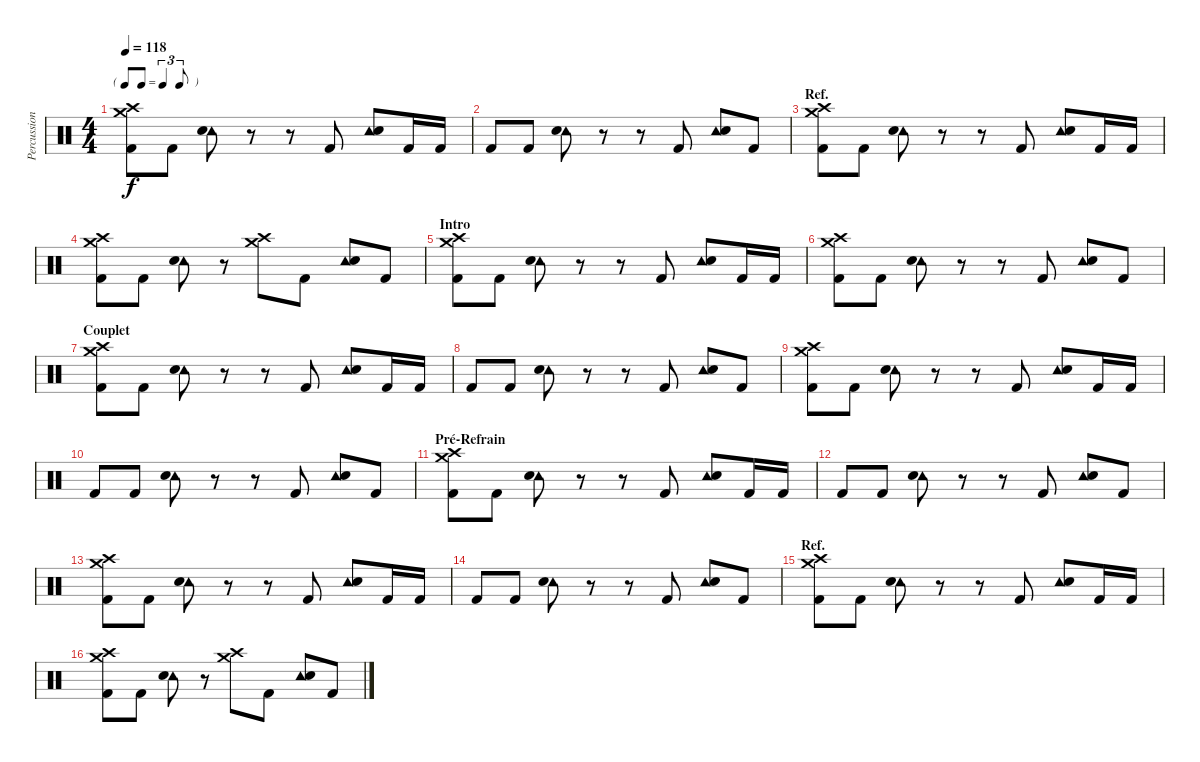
\track ("Percussions" "Percussion") {instrument percussion}
\staff {score}
\articulation defaults
\ts (4 4)
\tf triplet8th
\tempo 118
\clef neutral
\ks c
("Crash medium (hit)" "Crash high (hit)" "Kick (hit) 2").8{dy f} "Kick (hit) 2".8 ("Tambourine (hit)" "Snare (hit) 2").8 r.8 r.8 "Kick (hit) 2".8 ("Tambourine (hit)" "Snare (hit) 2").8 "Kick (hit) 2".16 "Kick (hit) 2".16 |
"Kick (hit) 2".8 "Kick (hit) 2".8 ("Tambourine (hit)" "Snare (hit) 2").8 r.8 r.8 "Kick (hit) 2".8 ("Tambourine (hit)" "Snare (hit) 2").8 "Kick (hit) 2".8 |
\section ("" "Ref.")
("Crash medium (hit)" "Crash high (hit)" "Kick (hit) 2").8 "Kick (hit) 2".8 ("Tambourine (hit)" "Snare (hit) 2").8 r.8 r.8 "Kick (hit) 2".8 ("Tambourine (hit)" "Snare (hit) 2").8 "Kick (hit) 2".16 "Kick (hit) 2".16 |
("Crash medium (hit)" "Crash high (hit)" "Kick (hit) 2").8 "Kick (hit) 2".8 ("Tambourine (hit)" "Snare (hit) 2").8 r.8 ("Crash medium (hit)" "Crash high (hit)").8 "Kick (hit) 2".8 ("Tambourine (hit)" "Snare (hit) 2").8 "Kick (hit) 2".8 |
\section ("" "Intro")
("Crash medium (hit)" "Crash high (hit)" "Kick (hit) 2").8 "Kick (hit) 2".8 ("Tambourine (hit)" "Snare (hit) 2").8 r.8 r.8 "Kick (hit) 2".8 ("Tambourine (hit)" "Snare (hit) 2").8 "Kick (hit) 2".16 "Kick (hit) 2".16 |
("Crash medium (hit)" "Crash high (hit)" "Kick (hit) 2").8 "Kick (hit) 2".8 ("Tambourine (hit)" "Snare (hit) 2").8 r.8 r.8 "Kick (hit) 2".8 ("Tambourine (hit)" "Snare (hit) 2").8 "Kick (hit) 2".8 |
\section ("" "Couplet")
("Crash medium (hit)" "Crash high (hit)" "Kick (hit) 2").8 "Kick (hit) 2".8 ("Tambourine (hit)" "Snare (hit) 2").8 r.8 r.8 "Kick (hit) 2".8 ("Tambourine (hit)" "Snare (hit) 2").8 "Kick (hit) 2".16 "Kick (hit) 2".16 |
"Kick (hit) 2".8 "Kick (hit) 2".8 ("Tambourine (hit)" "Snare (hit) 2").8 r.8 r.8 "Kick (hit) 2".8 ("Tambourine (hit)" "Snare (hit) 2").8 "Kick (hit) 2".8 |
("Crash medium (hit)" "Crash high (hit)" "Kick (hit) 2").8 "Kick (hit) 2".8 ("Tambourine (hit)" "Snare (hit) 2").8 r.8 r.8 "Kick (hit) 2".8 ("Tambourine (hit)" "Snare (hit) 2").8 "Kick (hit) 2".16 "Kick (hit) 2".16 |
"Kick (hit) 2".8 "Kick (hit) 2".8 ("Tambourine (hit)" "Snare (hit) 2").8 r.8 r.8 "Kick (hit) 2".8 ("Tambourine (hit)" "Snare (hit) 2").8 "Kick (hit) 2".8 |
\section ("" "Pré-Refrain")
("Crash medium (hit)" "Crash high (hit)" "Kick (hit) 2").8 "Kick (hit) 2".8 ("Tambourine (hit)" "Snare (hit) 2").8 r.8 r.8 "Kick (hit) 2".8 ("Tambourine (hit)" "Snare (hit) 2").8 "Kick (hit) 2".16 "Kick (hit) 2".16 |
"Kick (hit) 2".8 "Kick (hit) 2".8 ("Tambourine (hit)" "Snare (hit) 2").8 r.8 r.8 "Kick (hit) 2".8 ("Tambourine (hit)" "Snare (hit) 2").8 "Kick (hit) 2".8 |
("Crash medium (hit)" "Crash high (hit)" "Kick (hit) 2").8 "Kick (hit) 2".8 ("Tambourine (hit)" "Snare (hit) 2").8 r.8 r.8 "Kick (hit) 2".8 ("Tambourine (hit)" "Snare (hit) 2").8 "Kick (hit) 2".16 "Kick (hit) 2".16 |
"Kick (hit) 2".8 "Kick (hit) 2".8 ("Tambourine (hit)" "Snare (hit) 2").8 r.8 r.8 "Kick (hit) 2".8 ("Tambourine (hit)" "Snare (hit) 2").8 "Kick (hit) 2".8 |
\section ("" "Ref.")
("Crash medium (hit)" "Crash high (hit)" "Kick (hit) 2").8 "Kick (hit) 2".8 ("Tambourine (hit)" "Snare (hit) 2").8 r.8 r.8 "Kick (hit) 2".8 ("Tambourine (hit)" "Snare (hit) 2").8 "Kick (hit) 2".16 "Kick (hit) 2".16 |
("Crash medium (hit)" "Crash high (hit)" "Kick (hit) 2").8 "Kick (hit) 2".8 ("Tambourine (hit)" "Snare (hit) 2").8 r.8 ("Crash medium (hit)" "Crash high (hit)").8 "Kick (hit) 2".8 ("Tambourine (hit)" "Snare (hit) 2").8 "Kick (hit) 2".8
